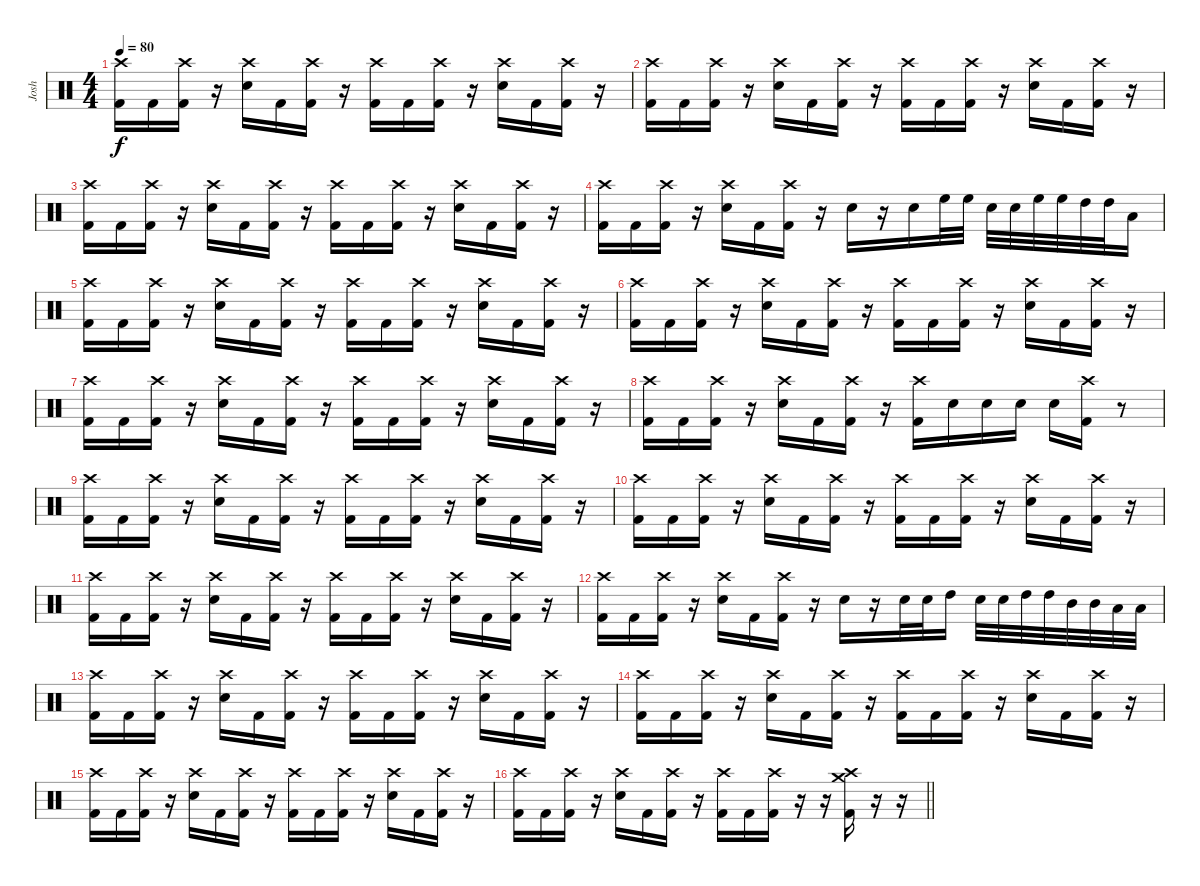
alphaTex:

\track ("Josh" "Josh") {instrument percussion}
\staff {score}
\articulation defaults
\ts (4 4)
\tempo 80
\clef neutral
\ks c
("Crash high (hit)" "Kick (hit) 2").16{dy f} "Kick (hit) 2".16 ("Crash high (hit)" "Kick (hit) 2").16 r.16 ("Crash high (hit)" "Electric Snare (hit)").16 "Kick (hit) 2".16 ("Crash high (hit)" "Kick (hit) 2").16 r.16 ("Crash high (hit)" "Kick (hit) 2").16 "Kick (hit) 2".16 ("Crash high (hit)" "Kick (hit) 2").16 r.16 ("Crash high (hit)" "Electric Snare (hit)").16 "Kick (hit) 2".16 ("Crash high (hit)" "Kick (hit) 2").16 r.16 |
("Crash high (hit)" "Kick (hit) 2").16 "Kick (hit) 2".16 ("Crash high (hit)" "Kick (hit) 2").16 r.16 ("Crash high (hit)" "Electric Snare (hit)").16 "Kick (hit) 2".16 ("Crash high (hit)" "Kick (hit) 2").16 r.16 ("Crash high (hit)" "Kick (hit) 2").16 "Kick (hit) 2".16 ("Crash high (hit)" "Kick (hit) 2").16 r.16 ("Crash high (hit)" "Electric Snare (hit)").16 "Kick (hit) 2".16 ("Crash high (hit)" "Kick (hit) 2").16 r.16 |
("Crash high (hit)" "Kick (hit) 2").16 "Kick (hit) 2".16 ("Crash high (hit)" "Kick (hit) 2").16 r.16 ("Crash high (hit)" "Electric Snare (hit)").16 "Kick (hit) 2".16 ("Crash high (hit)" "Kick (hit) 2").16 r.16 ("Crash high (hit)" "Kick (hit) 2").16 "Kick (hit) 2".16 ("Crash high (hit)" "Kick (hit) 2").16 r.16 ("Crash high (hit)" "Electric Snare (hit)").16 "Kick (hit) 2".16 ("Crash high (hit)" "Kick (hit) 2").16 r.16 |
("Crash high (hit)" "Kick (hit) 2").16 "Kick (hit) 2".16 ("Crash high (hit)" "Kick (hit) 2").16 r.16 ("Crash high (hit)" "Electric Snare (hit)").16 "Kick (hit) 2".16 ("Crash high (hit)" "Kick (hit) 2").16 r.16 "Electric Snare (hit)".16 r.16 "Electric Snare (hit)".16 "High Floor Tom (hit)".32 "High Floor Tom (hit)".32 "Electric Snare (hit)".32 "Electric Snare (hit)".32 "High Floor Tom (hit)".32 "High Floor Tom (hit)".32 "High Tom (hit)".32 "High Tom (hit)".32 "Low Floor Tom (hit)".16 |
("Crash high (hit)" "Kick (hit) 2").16 "Kick (hit) 2".16 ("Crash high (hit)" "Kick (hit) 2").16 r.16 ("Crash high (hit)" "Electric Snare (hit)").16 "Kick (hit) 2".16 ("Crash high (hit)" "Kick (hit) 2").16 r.16 ("Crash high (hit)" "Kick (hit) 2").16 "Kick (hit) 2".16 ("Crash high (hit)" "Kick (hit) 2").16 r.16 ("Crash high (hit)" "Electric Snare (hit)").16 "Kick (hit) 2".16 ("Crash high (hit)" "Kick (hit) 2").16 r.16 |
("Crash high (hit)" "Kick (hit) 2").16 "Kick (hit) 2".16 ("Crash high (hit)" "Kick (hit) 2").16 r.16 ("Crash high (hit)" "Electric Snare (hit)").16 "Kick (hit) 2".16 ("Crash high (hit)" "Kick (hit) 2").16 r.16 ("Crash high (hit)" "Kick (hit) 2").16 "Kick (hit) 2".16 ("Crash high (hit)" "Kick (hit) 2").16 r.16 ("Crash high (hit)" "Electric Snare (hit)").16 "Kick (hit) 2".16 ("Crash high (hit)" "Kick (hit) 2").16 r.16 |
("Crash high (hit)" "Kick (hit) 2").16 "Kick (hit) 2".16 ("Crash high (hit)" "Kick (hit) 2").16 r.16 ("Crash high (hit)" "Electric Snare (hit)").16 "Kick (hit) 2".16 ("Crash high (hit)" "Kick (hit) 2").16 r.16 ("Crash high (hit)" "Kick (hit) 2").16 "Kick (hit) 2".16 ("Crash high (hit)" "Kick (hit) 2").16 r.16 ("Crash high (hit)" "Electric Snare (hit)").16 "Kick (hit) 2".16 ("Crash high (hit)" "Kick (hit) 2").16 r.16 |
("Crash high (hit)" "Kick (hit) 2").16 "Kick (hit) 2".16 ("Crash high (hit)" "Kick (hit) 2").16 r.16 ("Crash high (hit)" "Electric Snare (hit)").16 "Kick (hit) 2".16 ("Crash high (hit)" "Kick (hit) 2").16 r.16 ("Crash high (hit)" "Kick (hit) 2").16 "Electric Snare (hit)".16 "Electric Snare (hit)".16 "Electric Snare (hit)".16 "Electric Snare (hit)".16 ("Crash high (hit)" "Kick (hit) 2").16 r.8 |
("Crash high (hit)" "Kick (hit) 2").16 "Kick (hit) 2".16 ("Crash high (hit)" "Kick (hit) 2").16 r.16 ("Crash high (hit)" "Electric Snare (hit)").16 "Kick (hit) 2".16 ("Crash high (hit)" "Kick (hit) 2").16 r.16 ("Crash high (hit)" "Kick (hit) 2").16 "Kick (hit) 2".16 ("Crash high (hit)" "Kick (hit) 2").16 r.16 ("Crash high (hit)" "Electric Snare (hit)").16 "Kick (hit) 2".16 ("Crash high (hit)" "Kick (hit) 2").16 r.16 |
("Crash high (hit)" "Kick (hit) 2").16 "Kick (hit) 2".16 ("Crash high (hit)" "Kick (hit) 2").16 r.16 ("Crash high (hit)" "Electric Snare (hit)").16 "Kick (hit) 2".16 ("Crash high (hit)" "Kick (hit) 2").16 r.16 ("Crash high (hit)" "Kick (hit) 2").16 "Kick (hit) 2".16 ("Crash high (hit)" "Kick (hit) 2").16 r.16 ("Crash high (hit)" "Electric Snare (hit)").16 "Kick (hit) 2".16 ("Crash high (hit)" "Kick (hit) 2").16 r.16 |
("Crash high (hit)" "Kick (hit) 2").16 "Kick (hit) 2".16 ("Crash high (hit)" "Kick (hit) 2").16 r.16 ("Crash high (hit)" "Electric Snare (hit)").16 "Kick (hit) 2".16 ("Crash high (hit)" "Kick (hit) 2").16 r.16 ("Crash high (hit)" "Kick (hit) 2").16 "Kick (hit) 2".16 ("Crash high (hit)" "Kick (hit) 2").16 r.16 ("Crash high (hit)" "Electric Snare (hit)").16 "Kick (hit) 2".16 ("Crash high (hit)" "Kick (hit) 2").16 r.16 |
("Crash high (hit)" "Kick (hit) 2").16 "Kick (hit) 2".16 ("Crash high (hit)" "Kick (hit) 2").16 r.16 ("Crash high (hit)" "Electric Snare (hit)").16 "Kick (hit) 2".16 ("Crash high (hit)" "Kick (hit) 2").16 r.16 "Electric Snare (hit)".16 r.16 "Electric Snare (hit)".32 "Electric Snare (hit)".32 "High Tom (hit)".16 "Electric Snare (hit)".32 "Electric Snare (hit)".32 "High Tom (hit)".32 "High Tom (hit)".32 "Mid Tom (hit)".32 "Mid Tom (hit)".32 "Low Floor Tom (hit)".32 "Low Floor Tom (hit)".32 |
("Crash high (hit)" "Kick (hit) 2").16 "Kick (hit) 2".16 ("Crash high (hit)" "Kick (hit) 2").16 r.16 ("Crash high (hit)" "Electric Snare (hit)").16 "Kick (hit) 2".16 ("Crash high (hit)" "Kick (hit) 2").16 r.16 ("Crash high (hit)" "Kick (hit) 2").16 "Kick (hit) 2".16 ("Crash high (hit)" "Kick (hit) 2").16 r.16 ("Crash high (hit)" "Electric Snare (hit)").16 "Kick (hit) 2".16 ("Crash high (hit)" "Kick (hit) 2").16 r.16 |
("Crash high (hit)" "Kick (hit) 2").16 "Kick (hit) 2".16 ("Crash high (hit)" "Kick (hit) 2").16 r.16 ("Crash high (hit)" "Electric Snare (hit)").16 "Kick (hit) 2".16 ("Crash high (hit)" "Kick (hit) 2").16 r.16 ("Crash high (hit)" "Kick (hit) 2").16 "Kick (hit) 2".16 ("Crash high (hit)" "Kick (hit) 2").16 r.16 ("Crash high (hit)" "Electric Snare (hit)").16 "Kick (hit) 2".16 ("Crash high (hit)" "Kick (hit) 2").16 r.16 |
("Crash high (hit)" "Kick (hit) 2").16 "Kick (hit) 2".16 ("Crash high (hit)" "Kick (hit) 2").16 r.16 ("Crash high (hit)" "Electric Snare (hit)").16 "Kick (hit) 2".16 ("Crash high (hit)" "Kick (hit) 2").16 r.16 ("Crash high (hit)" "Kick (hit) 2").16 "Kick (hit) 2".16 ("Crash high (hit)" "Kick (hit) 2").16 r.16 ("Crash high (hit)" "Electric Snare (hit)").16 "Kick (hit) 2".16 ("Crash high (hit)" "Kick (hit) 2").16 r.16 |
\barLineRight lightlight
("Crash high (hit)" "Kick (hit) 2").16 "Kick (hit) 2".16 ("Crash high (hit)" "Kick (hit) 2").16 r.16 ("Crash high (hit)" "Electric Snare (hit)").16 "Kick (hit) 2".16 ("Crash high (hit)" "Kick (hit) 2").16 r.16 ("Crash high (hit)" "Kick (hit) 2").16 "Kick (hit) 2".16 ("Crash high (hit)" "Kick (hit) 2").16 r.16 r.16 ("Crash high (hit)" "Crash medium (hit)" "Kick (hit) 2").16 r.16 r.16
